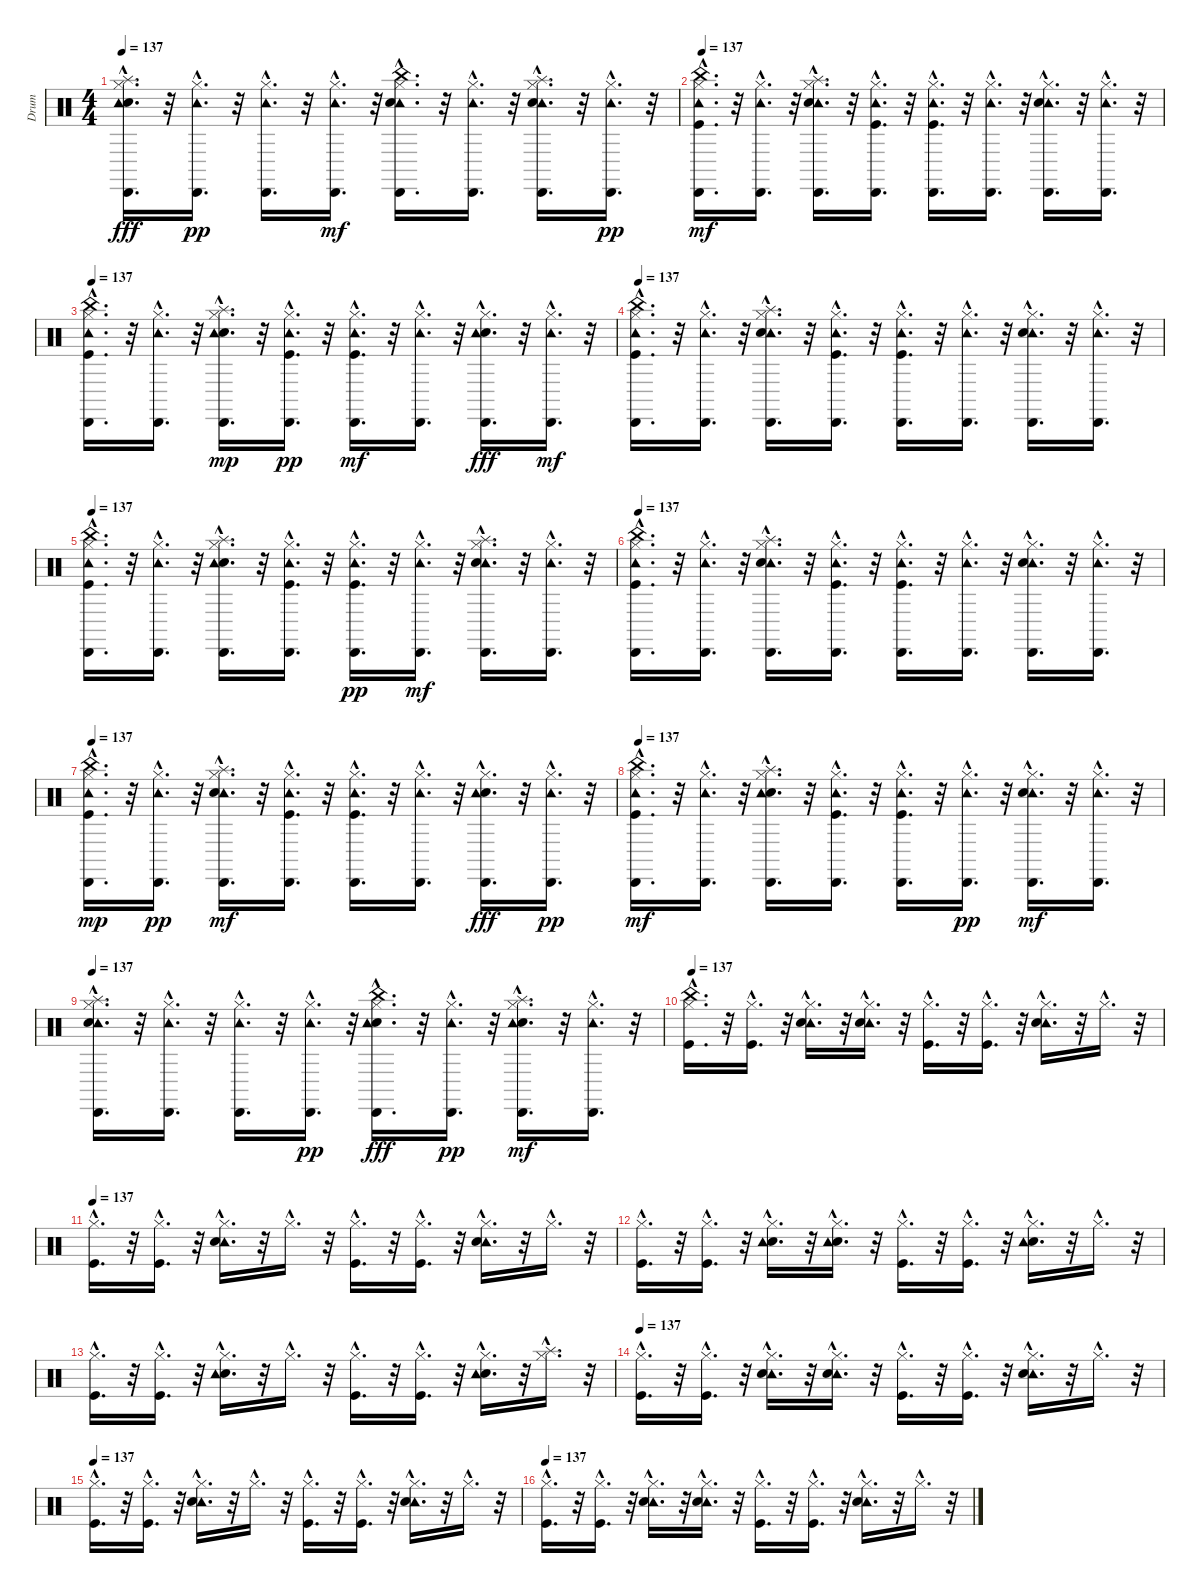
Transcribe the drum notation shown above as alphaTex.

\track ("Drum" "Drum") {instrument percussion}
\staff {score}
\articulation defaults
\ts (4 4)
\tempo 137
\clef neutral
\ks c
("Hi-Hat (closed)"{hac} "Snare (hit) 2"{hac} "Splash (hit)"{hac} "Cabasa (hit)"{hac} "Tambourine (hit)"{hac}).16{d dy fff} r.32 ("Cabasa (hit)"{hac} "Hi-Hat (closed)"{hac} "Tambourine (hit)"{hac}).16{d dy pp} r.32 ("Hi-Hat (closed)"{hac} "Cabasa (hit)"{hac} "Tambourine (hit)"{hac}).16{d} r.32 ("Tambourine (hit)"{hac} "Hi-Hat (closed)"{hac} "Cabasa (hit)"{hac}).16{d dy mf} r.32 ("Tambourine (hit)"{hac} "Snare (hit) 2"{hac} "Cabasa (hit)"{hac} "Hi-Hat (closed)"{hac} "China (hit)"{hac}).16{d} r.32 ("Tambourine (hit)"{hac} "Hi-Hat (closed)"{hac} "Cabasa (hit)"{hac}).16{d} r.32 ("Hi-Hat (closed)"{hac} "Cabasa (hit)"{hac} "Tambourine (hit)"{hac} "Splash (hit)"{hac} "Snare (hit) 2"{hac}).16{d} r.32 ("Hi-Hat (closed)"{hac} "Cabasa (hit)"{hac} "Tambourine (hit)"{hac}).16{d dy pp} r.32 |
\tempo 137
("Hi-Hat (closed)"{hac} "Kick (hit)"{hac} "Tambourine (hit)"{hac} "Cabasa (hit)"{hac} "China (hit)"{hac}).16{d dy mf} r.32 ("Hi-Hat (closed)"{hac} "Tambourine (hit)"{hac} "Cabasa (hit)"{hac}).16{d} r.32 ("Tambourine (hit)"{hac} "Hi-Hat (closed)"{hac} "Snare (hit) 2"{hac} "Cabasa (hit)"{hac} "Splash (hit)"{hac}).16{d} r.32 ("Tambourine (hit)"{hac} "Hi-Hat (closed)"{hac} "Cabasa (hit)"{hac} "Kick (hit)"{hac}).16{d} r.32 ("Hi-Hat (closed)"{hac} "Kick (hit)"{hac} "Tambourine (hit)"{hac} "Cabasa (hit)"{hac}).16{d} r.32 ("Hi-Hat (closed)"{hac} "Tambourine (hit)"{hac} "Cabasa (hit)"{hac}).16{d} r.32 ("Tambourine (hit)"{hac} "Hi-Hat (closed)"{hac} "Snare (hit) 2"{hac} "Cabasa (hit)"{hac}).16{d} r.32 ("Hi-Hat (closed)"{hac} "Tambourine (hit)"{hac} "Cabasa (hit)"{hac}).16{d} r.32 |
\tempo 137
("Cabasa (hit)"{hac} "Tambourine (hit)"{hac} "Kick (hit)"{hac} "Hi-Hat (closed)"{hac} "China (hit)"{hac}).16{d} r.32 ("Cabasa (hit)"{hac} "Tambourine (hit)"{hac} "Hi-Hat (closed)"{hac}).16{d} r.32 ("Cabasa (hit)"{hac} "Snare (hit) 2"{hac} "Hi-Hat (closed)"{hac} "Tambourine (hit)"{hac} "Splash (hit)"{hac}).16{d dy mp} r.32 ("Kick (hit)"{hac} "Cabasa (hit)"{hac} "Hi-Hat (closed)"{hac} "Tambourine (hit)"{hac}).16{d dy pp} r.32 ("Cabasa (hit)"{hac} "Tambourine (hit)"{hac} "Kick (hit)"{hac} "Hi-Hat (closed)"{hac}).16{d dy mf} r.32 ("Cabasa (hit)"{hac} "Tambourine (hit)"{hac} "Hi-Hat (closed)"{hac}).16{d} r.32 ("Cabasa (hit)"{hac} "Snare (hit) 2"{hac} "Hi-Hat (closed)"{hac} "Tambourine (hit)"{hac}).16{d dy fff} r.32 ("Cabasa (hit)"{hac} "Tambourine (hit)"{hac} "Hi-Hat (closed)"{hac}).16{d dy mf} r.32 |
\tempo 137
("Hi-Hat (closed)"{hac} "Kick (hit)"{hac} "Tambourine (hit)"{hac} "Cabasa (hit)"{hac} "China (hit)"{hac}).16{d} r.32 ("Hi-Hat (closed)"{hac} "Tambourine (hit)"{hac} "Cabasa (hit)"{hac}).16{d} r.32 ("Tambourine (hit)"{hac} "Hi-Hat (closed)"{hac} "Snare (hit) 2"{hac} "Cabasa (hit)"{hac} "Splash (hit)"{hac}).16{d} r.32 ("Tambourine (hit)"{hac} "Hi-Hat (closed)"{hac} "Cabasa (hit)"{hac} "Kick (hit)"{hac}).16{d} r.32 ("Hi-Hat (closed)"{hac} "Kick (hit)"{hac} "Tambourine (hit)"{hac} "Cabasa (hit)"{hac}).16{d} r.32 ("Hi-Hat (closed)"{hac} "Tambourine (hit)"{hac} "Cabasa (hit)"{hac}).16{d} r.32 ("Tambourine (hit)"{hac} "Hi-Hat (closed)"{hac} "Snare (hit) 2"{hac} "Cabasa (hit)"{hac}).16{d} r.32 ("Hi-Hat (closed)"{hac} "Tambourine (hit)"{hac} "Cabasa (hit)"{hac}).16{d} r.32 |
\tempo 137
("Kick (hit)"{hac} "Hi-Hat (closed)"{hac} "Tambourine (hit)"{hac} "Cabasa (hit)"{hac} "China (hit)"{hac}).16{d} r.32 ("Cabasa (hit)"{hac} "Tambourine (hit)"{hac} "Hi-Hat (closed)"{hac}).16{d} r.32 ("Hi-Hat (closed)"{hac} "Snare (hit) 2"{hac} "Tambourine (hit)"{hac} "Cabasa (hit)"{hac} "Splash (hit)"{hac}).16{d} r.32 ("Kick (hit)"{hac} "Tambourine (hit)"{hac} "Hi-Hat (closed)"{hac} "Cabasa (hit)"{hac}).16{d} r.32 ("Kick (hit)"{hac} "Cabasa (hit)"{hac} "Hi-Hat (closed)"{hac} "Tambourine (hit)"{hac}).16{d dy pp} r.32 ("Hi-Hat (closed)"{hac} "Tambourine (hit)"{hac} "Cabasa (hit)"{hac}).16{d dy mf} r.32 ("Hi-Hat (closed)"{hac} "Tambourine (hit)"{hac} "Splash (hit)"{hac} "Cabasa (hit)"{hac} "Snare (hit) 2"{hac}).16{d} r.32 ("Cabasa (hit)"{hac} "Tambourine (hit)"{hac} "Hi-Hat (closed)"{hac}).16{d} r.32 |
\tempo 137
("Hi-Hat (closed)"{hac} "Kick (hit)"{hac} "Tambourine (hit)"{hac} "Cabasa (hit)"{hac} "China (hit)"{hac}).16{d} r.32 ("Hi-Hat (closed)"{hac} "Tambourine (hit)"{hac} "Cabasa (hit)"{hac}).16{d} r.32 ("Tambourine (hit)"{hac} "Hi-Hat (closed)"{hac} "Snare (hit) 2"{hac} "Cabasa (hit)"{hac} "Splash (hit)"{hac}).16{d} r.32 ("Tambourine (hit)"{hac} "Hi-Hat (closed)"{hac} "Cabasa (hit)"{hac} "Kick (hit)"{hac}).16{d} r.32 ("Hi-Hat (closed)"{hac} "Kick (hit)"{hac} "Tambourine (hit)"{hac} "Cabasa (hit)"{hac}).16{d} r.32 ("Hi-Hat (closed)"{hac} "Tambourine (hit)"{hac} "Cabasa (hit)"{hac}).16{d} r.32 ("Tambourine (hit)"{hac} "Hi-Hat (closed)"{hac} "Snare (hit) 2"{hac} "Cabasa (hit)"{hac}).16{d} r.32 ("Hi-Hat (closed)"{hac} "Tambourine (hit)"{hac} "Cabasa (hit)"{hac}).16{d} r.32 |
\tempo 137
("Hi-Hat (closed)"{hac} "Cabasa (hit)"{hac} "Kick (hit)"{hac} "Tambourine (hit)"{hac} "China (hit)"{hac}).16{d dy mp} r.32 ("Hi-Hat (closed)"{hac} "Cabasa (hit)"{hac} "Tambourine (hit)"{hac}).16{d dy pp} r.32 ("Tambourine (hit)"{hac} "Snare (hit) 2"{hac} "Hi-Hat (closed)"{hac} "Cabasa (hit)"{hac} "Splash (hit)"{hac}).16{d dy mf} r.32 ("Kick (hit)"{hac} "Cabasa (hit)"{hac} "Tambourine (hit)"{hac} "Hi-Hat (closed)"{hac}).16{d} r.32 ("Cabasa (hit)"{hac} "Tambourine (hit)"{hac} "Hi-Hat (closed)"{hac} "Kick (hit)"{hac}).16{d} r.32 ("Tambourine (hit)"{hac} "Cabasa (hit)"{hac} "Hi-Hat (closed)"{hac}).16{d} r.32 ("Hi-Hat (closed)"{hac} "Snare (hit) 2"{hac} "Cabasa (hit)"{hac} "Tambourine (hit)"{hac}).16{d dy fff} r.32 ("Hi-Hat (closed)"{hac} "Cabasa (hit)"{hac} "Tambourine (hit)"{hac}).16{d dy pp} r.32 |
\tempo 137
("Tambourine (hit)"{hac} "Cabasa (hit)"{hac} "Kick (hit)"{hac} "Hi-Hat (closed)"{hac} "China (hit)"{hac}).16{d dy mf} r.32 ("Tambourine (hit)"{hac} "Hi-Hat (closed)"{hac} "Cabasa (hit)"{hac}).16{d} r.32 ("Cabasa (hit)"{hac} "Snare (hit) 2"{hac} "Tambourine (hit)"{hac} "Hi-Hat (closed)"{hac} "Splash (hit)"{hac}).16{d} r.32 ("Cabasa (hit)"{hac} "Hi-Hat (closed)"{hac} "Tambourine (hit)"{hac} "Kick (hit)"{hac}).16{d} r.32 ("Cabasa (hit)"{hac} "Tambourine (hit)"{hac} "Hi-Hat (closed)"{hac} "Kick (hit)"{hac}).16{d} r.32 ("Hi-Hat (closed)"{hac} "Cabasa (hit)"{hac} "Tambourine (hit)"{hac}).16{d dy pp} r.32 ("Hi-Hat (closed)"{hac} "Tambourine (hit)"{hac} "Cabasa (hit)"{hac} "Snare (hit) 2"{hac}).16{d dy mf} r.32 ("Tambourine (hit)"{hac} "Cabasa (hit)"{hac} "Hi-Hat (closed)"{hac}).16{d} r.32 |
\tempo 137
("Tambourine (hit)"{hac} "Cabasa (hit)"{hac} "Splash (hit)"{hac} "Snare (hit) 2"{hac} "Hi-Hat (closed)"{hac}).16{d} r.32 ("Tambourine (hit)"{hac} "Hi-Hat (closed)"{hac} "Cabasa (hit)"{hac}).16{d} r.32 ("Tambourine (hit)"{hac} "Cabasa (hit)"{hac} "Hi-Hat (closed)"{hac}).16{d} r.32 ("Cabasa (hit)"{hac} "Hi-Hat (closed)"{hac} "Tambourine (hit)"{hac}).16{d dy pp} r.32 ("China (hit)"{hac} "Hi-Hat (closed)"{hac} "Cabasa (hit)"{hac} "Snare (hit) 2"{hac} "Tambourine (hit)"{hac}).16{d dy fff} r.32 ("Cabasa (hit)"{hac} "Hi-Hat (closed)"{hac} "Tambourine (hit)"{hac}).16{d dy pp} r.32 ("Snare (hit) 2"{hac} "Splash (hit)"{hac} "Tambourine (hit)"{hac} "Cabasa (hit)"{hac} "Hi-Hat (closed)"{hac}).16{d dy mf} r.32 ("Tambourine (hit)"{hac} "Cabasa (hit)"{hac} "Hi-Hat (closed)"{hac}).16{d} r.32 |
\tempo 137
("Hi-Hat (closed)"{hac} "Kick (hit)"{hac} "China (hit)"{hac}).16{d} r.32 ("Hi-Hat (closed)"{hac} "Kick (hit)"{hac}).16{d} r.32 ("Tambourine (hit)"{hac} "Hi-Hat (closed)"{hac} "Snare (hit) 2"{hac}).16{d} r.32 ("Tambourine (hit)"{hac} "Hi-Hat (closed)"{hac} "Snare (hit) 2"{hac}).16{d} r.32 ("Hi-Hat (closed)"{hac} "Kick (hit)"{hac}).16{d} r.32 ("Hi-Hat (closed)"{hac} "Kick (hit)"{hac}).16{d} r.32 ("Tambourine (hit)"{hac} "Hi-Hat (closed)"{hac} "Snare (hit) 2"{hac}).16{d} r.32 "Hi-Hat (closed)"{hac}.16{d} r.32 |
\tempo 137
("Hi-Hat (closed)"{hac} "Kick (hit)"{hac}).16{d} r.32 ("Hi-Hat (closed)"{hac} "Kick (hit)"{hac}).16{d} r.32 ("Tambourine (hit)"{hac} "Hi-Hat (closed)"{hac} "Snare (hit) 2"{hac}).16{d} r.32 "Hi-Hat (closed)"{hac}.16{d} r.32 ("Hi-Hat (closed)"{hac} "Kick (hit)"{hac}).16{d} r.32 ("Hi-Hat (closed)"{hac} "Kick (hit)"{hac}).16{d} r.32 ("Tambourine (hit)"{hac} "Hi-Hat (closed)"{hac} "Snare (hit) 2"{hac}).16{d} r.32 "Hi-Hat (closed)"{hac}.16{d} r.32 |
("Kick (hit)"{hac} "Hi-Hat (closed)"{hac}).16{d} r.32 ("Kick (hit)"{hac} "Hi-Hat (closed)"{hac}).16{d} r.32 ("Snare (hit) 2"{hac} "Hi-Hat (closed)"{hac} "Tambourine (hit)"{hac}).16{d} r.32 ("Snare (hit) 2"{hac} "Hi-Hat (closed)"{hac} "Tambourine (hit)"{hac}).16{d} r.32 ("Kick (hit)"{hac} "Hi-Hat (closed)"{hac}).16{d} r.32 ("Kick (hit)"{hac} "Hi-Hat (closed)"{hac}).16{d} r.32 ("Snare (hit) 2"{hac} "Hi-Hat (closed)"{hac} "Tambourine (hit)"{hac}).16{d} r.32 "Hi-Hat (closed)"{hac}.16{d} r.32 |
("Kick (hit)"{hac} "Hi-Hat (closed)"{hac}).16{d} r.32 ("Kick (hit)"{hac} "Hi-Hat (closed)"{hac}).16{d} r.32 ("Snare (hit) 2"{hac} "Hi-Hat (closed)"{hac} "Tambourine (hit)"{hac}).16{d} r.32 "Hi-Hat (closed)"{hac}.16{d} r.32 ("Kick (hit)"{hac} "Hi-Hat (closed)"{hac}).16{d} r.32 ("Kick (hit)"{hac} "Hi-Hat (closed)"{hac}).16{d} r.32 ("Snare (hit) 2"{hac} "Hi-Hat (closed)"{hac} "Tambourine (hit)"{hac}).16{d} r.32 ("Hi-Hat (closed)"{hac} "Splash (hit)"{hac}).16{d} r.32 |
\tempo 137
("Hi-Hat (closed)"{hac} "Kick (hit)"{hac}).16{d} r.32 ("Hi-Hat (closed)"{hac} "Kick (hit)"{hac}).16{d} r.32 ("Tambourine (hit)"{hac} "Hi-Hat (closed)"{hac} "Snare (hit) 2"{hac}).16{d} r.32 ("Tambourine (hit)"{hac} "Hi-Hat (closed)"{hac} "Snare (hit) 2"{hac}).16{d} r.32 ("Hi-Hat (closed)"{hac} "Kick (hit)"{hac}).16{d} r.32 ("Hi-Hat (closed)"{hac} "Kick (hit)"{hac}).16{d} r.32 ("Tambourine (hit)"{hac} "Hi-Hat (closed)"{hac} "Snare (hit) 2"{hac}).16{d} r.32 "Hi-Hat (closed)"{hac}.16{d} r.32 |
\tempo 137
("Hi-Hat (closed)"{hac} "Kick (hit)"{hac}).16{d} r.32 ("Hi-Hat (closed)"{hac} "Kick (hit)"{hac}).16{d} r.32 ("Tambourine (hit)"{hac} "Hi-Hat (closed)"{hac} "Snare (hit) 2"{hac}).16{d} r.32 "Hi-Hat (closed)"{hac}.16{d} r.32 ("Hi-Hat (closed)"{hac} "Kick (hit)"{hac}).16{d} r.32 ("Hi-Hat (closed)"{hac} "Kick (hit)"{hac}).16{d} r.32 ("Tambourine (hit)"{hac} "Hi-Hat (closed)"{hac} "Snare (hit) 2"{hac}).16{d} r.32 "Hi-Hat (closed)"{hac}.16{d} r.32 |
\tempo 137
("Hi-Hat (closed)"{hac} "Kick (hit)"{hac}).16{d} r.32 ("Hi-Hat (closed)"{hac} "Kick (hit)"{hac}).16{d} r.32 ("Tambourine (hit)"{hac} "Hi-Hat (closed)"{hac} "Snare (hit) 2"{hac}).16{d} r.32 ("Hi-Hat (closed)"{hac} "Tambourine (hit)"{hac} "Snare (hit) 2"{hac}).16{d} r.32 ("Kick (hit)"{hac} "Hi-Hat (closed)"{hac}).16{d} r.32 ("Kick (hit)"{hac} "Hi-Hat (closed)"{hac}).16{d} r.32 ("Hi-Hat (closed)"{hac} "Tambourine (hit)"{hac} "Snare (hit) 2"{hac}).16{d} r.32 "Hi-Hat (closed)"{hac}.16{d} r.32
